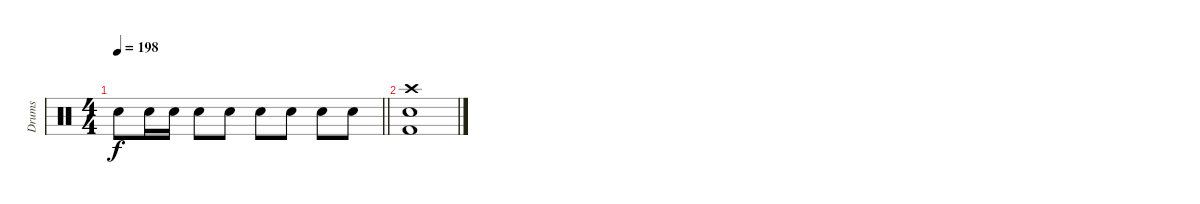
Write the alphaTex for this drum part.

\track ("Drums" "Drums") {instrument percussion}
\staff {score}
\articulation defaults
\ts (4 4)
\tempo 198
\clef neutral
\barLineRight lightlight
\ks c "Snare (hit) 2".8{dy f} "Snare (hit) 2".16 "Snare (hit) 2".16 "Snare (hit) 2".8 "Snare (hit) 2".8 "Snare (hit) 2".8 "Snare (hit) 2".8 "Snare (hit) 2".8 "Snare (hit) 2".8
|
("Crash high (hit)" "Snare (hit) 2" "Kick (hit) 2").1
